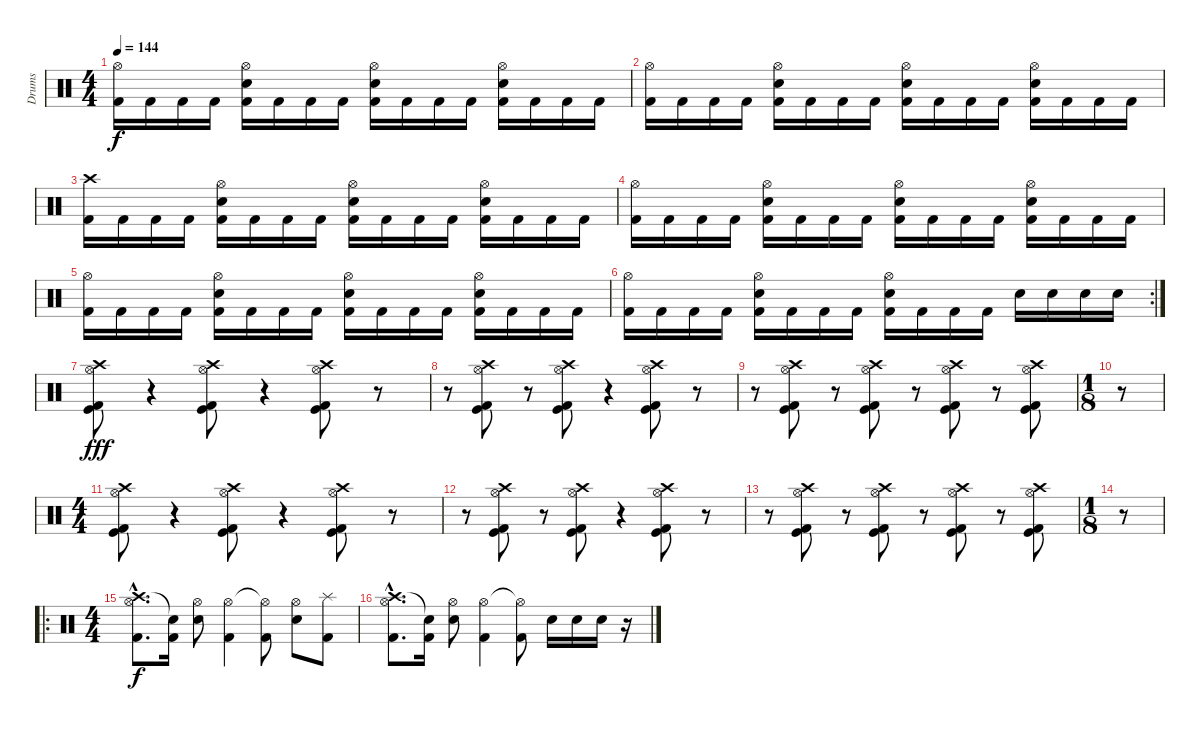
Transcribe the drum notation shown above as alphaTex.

\track ("Drums" "Drums") {instrument percussion}
\staff {score}
\articulation defaults
\ts (4 4)
\tempo 144
\clef neutral
\ks c
("Hi-Hat (open)" "Kick (hit) 2").16{dy f} "Kick (hit) 2".16 "Kick (hit) 2".16 "Kick (hit) 2".16 ("Hi-Hat (open)" "Snare (hit) 2" "Kick (hit) 2").16 "Kick (hit) 2".16 "Kick (hit) 2".16 "Kick (hit) 2".16 ("Hi-Hat (open)" "Snare (hit) 2" "Kick (hit) 2").16 "Kick (hit) 2".16 "Kick (hit) 2".16 "Kick (hit) 2".16 ("Hi-Hat (open)" "Snare (hit) 2" "Kick (hit) 2").16 "Kick (hit) 2".16 "Kick (hit) 2".16 "Kick (hit) 2".16 |
("Hi-Hat (open)" "Kick (hit) 2").16 "Kick (hit) 2".16 "Kick (hit) 2".16 "Kick (hit) 2".16 ("Hi-Hat (open)" "Snare (hit) 2" "Kick (hit) 2").16 "Kick (hit) 2".16 "Kick (hit) 2".16 "Kick (hit) 2".16 ("Hi-Hat (open)" "Snare (hit) 2" "Kick (hit) 2").16 "Kick (hit) 2".16 "Kick (hit) 2".16 "Kick (hit) 2".16 ("Hi-Hat (open)" "Snare (hit) 2" "Kick (hit) 2").16 "Kick (hit) 2".16 "Kick (hit) 2".16 "Kick (hit) 2".16 |
("Crash high (hit)" "Kick (hit) 2").16 "Kick (hit) 2".16 "Kick (hit) 2".16 "Kick (hit) 2".16 ("Hi-Hat (open)" "Snare (hit) 2" "Kick (hit) 2").16 "Kick (hit) 2".16 "Kick (hit) 2".16 "Kick (hit) 2".16 ("Hi-Hat (open)" "Snare (hit) 2" "Kick (hit) 2").16 "Kick (hit) 2".16 "Kick (hit) 2".16 "Kick (hit) 2".16 ("Hi-Hat (open)" "Snare (hit) 2" "Kick (hit) 2").16 "Kick (hit) 2".16 "Kick (hit) 2".16 "Kick (hit) 2".16 |
("Hi-Hat (open)" "Kick (hit) 2").16 "Kick (hit) 2".16 "Kick (hit) 2".16 "Kick (hit) 2".16 ("Hi-Hat (open)" "Snare (hit) 2" "Kick (hit) 2").16 "Kick (hit) 2".16 "Kick (hit) 2".16 "Kick (hit) 2".16 ("Hi-Hat (open)" "Snare (hit) 2" "Kick (hit) 2").16 "Kick (hit) 2".16 "Kick (hit) 2".16 "Kick (hit) 2".16 ("Hi-Hat (open)" "Snare (hit) 2" "Kick (hit) 2").16 "Kick (hit) 2".16 "Kick (hit) 2".16 "Kick (hit) 2".16 |
("Hi-Hat (open)" "Kick (hit) 2").16 "Kick (hit) 2".16 "Kick (hit) 2".16 "Kick (hit) 2".16 ("Hi-Hat (open)" "Snare (hit) 2" "Kick (hit) 2").16 "Kick (hit) 2".16 "Kick (hit) 2".16 "Kick (hit) 2".16 ("Hi-Hat (open)" "Snare (hit) 2" "Kick (hit) 2").16 "Kick (hit) 2".16 "Kick (hit) 2".16 "Kick (hit) 2".16 ("Hi-Hat (open)" "Snare (hit) 2" "Kick (hit) 2").16 "Kick (hit) 2".16 "Kick (hit) 2".16 "Kick (hit) 2".16 |
\rc 2
("Hi-Hat (open)" "Kick (hit) 2").16 "Kick (hit) 2".16 "Kick (hit) 2".16 "Kick (hit) 2".16 ("Hi-Hat (open)" "Snare (hit) 2" "Kick (hit) 2").16 "Kick (hit) 2".16 "Kick (hit) 2".16 "Kick (hit) 2".16 ("Hi-Hat (open)" "Snare (hit) 2" "Kick (hit) 2").16 "Kick (hit) 2".16 "Kick (hit) 2".16 "Kick (hit) 2".16 "Snare (hit) 2".16 "Snare (hit) 2".16 "Snare (hit) 2".16 "Snare (hit) 2".16 |
("Crash high (hit)" "Hi-Hat (open)" "Kick (hit)" "Kick (hit) 2").8{dy fff} r.4 ("Crash high (hit)" "Hi-Hat (open)" "Kick (hit)" "Kick (hit) 2").8 r.4 ("Crash high (hit)" "Hi-Hat (open)" "Kick (hit)" "Kick (hit) 2").8 r.8 |
r.8 ("Crash high (hit)" "Hi-Hat (open)" "Kick (hit)" "Kick (hit) 2").8 r.8 ("Crash high (hit)" "Hi-Hat (open)" "Kick (hit)" "Kick (hit) 2").8 r.4 ("Crash high (hit)" "Hi-Hat (open)" "Kick (hit)" "Kick (hit) 2").8 r.8 |
r.8 ("Crash high (hit)" "Hi-Hat (open)" "Kick (hit)" "Kick (hit) 2").8 r.8 ("Crash high (hit)" "Hi-Hat (open)" "Kick (hit)" "Kick (hit) 2").8 r.8 ("Crash high (hit)" "Hi-Hat (open)" "Kick (hit)" "Kick (hit) 2").8 r.8 ("Crash high (hit)" "Hi-Hat (open)" "Kick (hit)" "Kick (hit) 2").8 |
\ts (1 8)
r.8 |
\ts (4 4)
("Crash high (hit)" "Hi-Hat (open)" "Kick (hit)" "Kick (hit) 2").8 r.4 ("Crash high (hit)" "Hi-Hat (open)" "Kick (hit)" "Kick (hit) 2").8 r.4 ("Crash high (hit)" "Hi-Hat (open)" "Kick (hit)" "Kick (hit) 2").8 r.8 |
r.8 ("Crash high (hit)" "Hi-Hat (open)" "Kick (hit)" "Kick (hit) 2").8 r.8 ("Crash high (hit)" "Hi-Hat (open)" "Kick (hit)" "Kick (hit) 2").8 r.4 ("Crash high (hit)" "Hi-Hat (open)" "Kick (hit)" "Kick (hit) 2").8 r.8 |
r.8 ("Crash high (hit)" "Hi-Hat (open)" "Kick (hit)" "Kick (hit) 2").8 r.8 ("Crash high (hit)" "Hi-Hat (open)" "Kick (hit)" "Kick (hit) 2").8 r.8 ("Crash high (hit)" "Hi-Hat (open)" "Kick (hit)" "Kick (hit) 2").8 r.8 ("Crash high (hit)" "Hi-Hat (open)" "Kick (hit)" "Kick (hit) 2").8 |
\ts (1 8)
r.8 |
\ro
\ts (4 4)
("Crash high (hit)"{hac} "Hi-Hat (open)"{hac} "Kick (hit) 2"{hac}).8{d dy f} ("Snare (hit)"{t} "Kick (hit) 2").16 ("Hi-Hat (open)" "Snare (hit) 2").8 ("Hi-Hat (open)" "Kick (hit) 2").4 ("Hi-Hat (open)"{t} "Kick (hit) 2").8 ("Hi-Hat (open)" "Snare (hit) 2").8 ("Splash (hit)" "Kick (hit) 2").8 |
("Crash high (hit)"{hac} "Hi-Hat (open)"{hac} "Kick (hit) 2"{hac}).8{d} ("Snare (hit)"{t} "Kick (hit) 2").16 ("Hi-Hat (open)" "Snare (hit) 2").8 ("Hi-Hat (open)" "Kick (hit) 2").4 ("Hi-Hat (open)"{t} "Kick (hit) 2").8 "Snare (hit) 2".16 "Snare (hit) 2".16 "Snare (hit) 2".16 r.16
